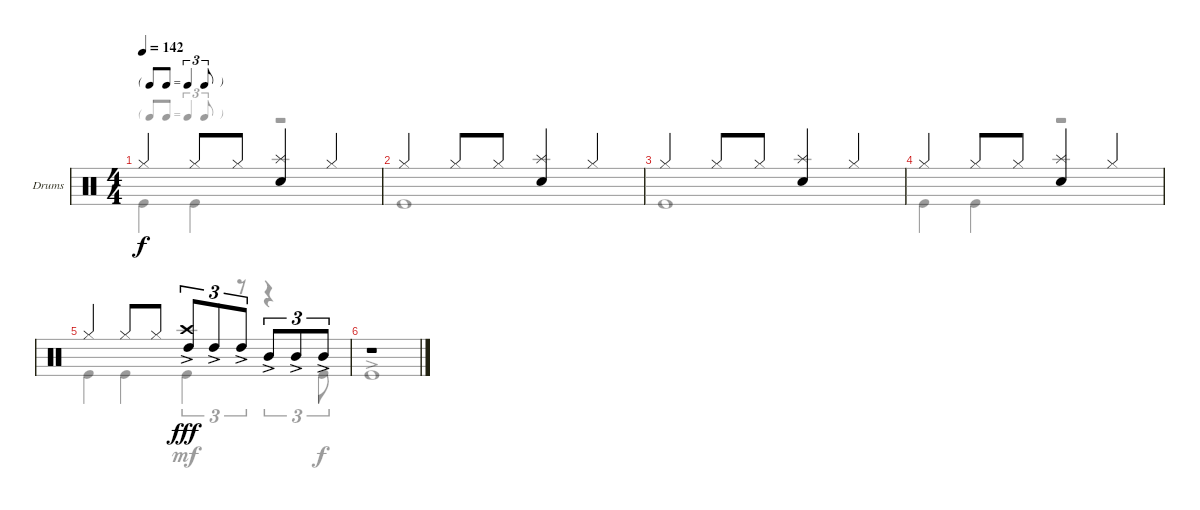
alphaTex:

\defaultSystemsLayout 4
\bracketExtendMode groupsimilarinstruments
\firstSystemTrackNameOrientation horizontal
\otherSystemsTrackNameOrientation horizontal
\track ("Drumkit" "Drums") {instrument percussion}
\staff {score}
\articulation defaults
\voice
\ts (4 4)
\tf triplet8th
\tempo 142
\clef neutral
\ks c "Hi-Hat (closed)".4{dy f} "Hi-Hat (closed)".8 "Hi-Hat (closed)".8
("Snare (hit) 2" "Splash (hit)").4 "Hi-Hat (closed)".4 |
"Hi-Hat (closed)".4 "Hi-Hat (closed)".8 "Hi-Hat (closed)".8 ("Snare (hit) 2" "Splash (hit)").4 "Hi-Hat (closed)".4 |
"Hi-Hat (closed)".4 "Hi-Hat (closed)".8 "Hi-Hat (closed)".8 ("Snare (hit) 2" "Splash (hit)").4 "Hi-Hat (closed)".4 |
"Hi-Hat (closed)".4 "Hi-Hat (closed)".8 "Hi-Hat (closed)".8 ("Snare (hit) 2" "Splash (hit)").4 "Hi-Hat (closed)".4 |
"Hi-Hat (closed)".4 "Hi-Hat (closed)".8 "Hi-Hat (closed)".8 ("Crash high (hit)" "High Tom (hit)"{ac}).8{tu (3 2) dy fff} "High Tom (hit)"{ac}.8{tu (3 2)} "High Tom (hit)"{ac}.8{tu (3 2)} "Mid Tom (hit)"{ac}.8{tu (3 2)} "Mid Tom (hit)"{ac}.8{tu (3 2)} "Mid Tom (hit)"{ac}.8{tu (3 2)} |
r.1
\voice
\clef neutral
\ottava regular
\simile none
\ks c "Kick (hit)".4{dy f} "Kick (hit)".4
r.2 |
"Kick (hit)".1 |
"Kick (hit)".1 |
"Kick (hit)".4 "Kick (hit)".4 r.2 |
"Kick (hit)".4 "Kick (hit)".4 "Kick (hit)".4{tu (3 2) dy mf} r.8{tu (3 2)} r.4{tu (3 2)} "Kick (hit)".8{tu (3 2) dy f} |
"Kick (hit)"{ac}.1
